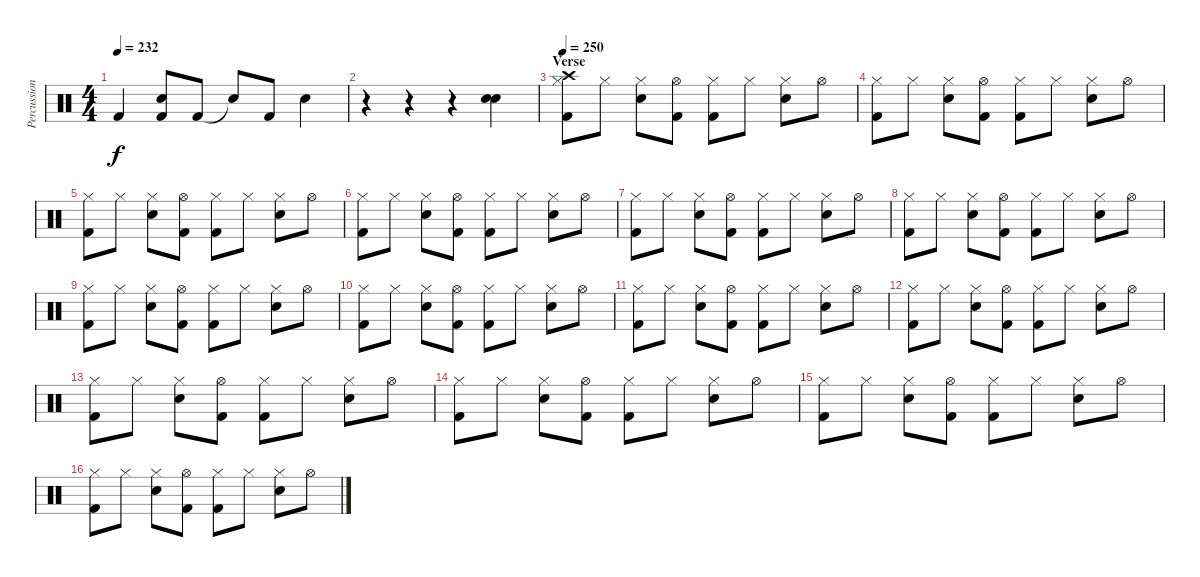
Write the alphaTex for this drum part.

\track ("Percussion" "Percussion") {instrument percussion}
\staff {score}
\articulation defaults
\ts (4 4)
\tempo 232
\clef neutral
\ks c "Kick (hit) 2".4{dy f}
("Electric Snare (hit)" "Kick (hit) 2").8 "Kick (hit) 2".8 "Snare (hit)"{t}.8 "Kick (hit) 2".8 "Electric Snare (hit)".4 |
r.4 r.4 r.4 ("Electric Snare (hit)" "Electric Snare (hit)").4 |
\section ("" "Verse")
\tempo 250
("Crash high (hit)" "Hi-Hat (closed)" "Kick (hit) 2").8 "Hi-Hat (closed)".8 ("Hi-Hat (closed)" "Electric Snare (hit)").8 ("Hi-Hat (open)" "Kick (hit) 2").8 ("Hi-Hat (closed)" "Kick (hit) 2").8 "Hi-Hat (closed)".8 ("Hi-Hat (closed)" "Electric Snare (hit)").8 "Hi-Hat (open)".8 |
("Hi-Hat (closed)" "Kick (hit) 2").8 "Hi-Hat (closed)".8 ("Hi-Hat (closed)" "Electric Snare (hit)").8 ("Hi-Hat (open)" "Kick (hit) 2").8 ("Hi-Hat (closed)" "Kick (hit) 2").8 "Hi-Hat (closed)".8 ("Hi-Hat (closed)" "Electric Snare (hit)").8 "Hi-Hat (open)".8 |
("Hi-Hat (closed)" "Kick (hit) 2").8 "Hi-Hat (closed)".8 ("Hi-Hat (closed)" "Electric Snare (hit)").8 ("Hi-Hat (open)" "Kick (hit) 2").8 ("Hi-Hat (closed)" "Kick (hit) 2").8 "Hi-Hat (closed)".8 ("Hi-Hat (closed)" "Electric Snare (hit)").8 "Hi-Hat (open)".8 |
("Hi-Hat (closed)" "Kick (hit) 2").8 "Hi-Hat (closed)".8 ("Hi-Hat (closed)" "Electric Snare (hit)").8 ("Hi-Hat (open)" "Kick (hit) 2").8 ("Hi-Hat (closed)" "Kick (hit) 2").8 "Hi-Hat (closed)".8 ("Hi-Hat (closed)" "Electric Snare (hit)").8 "Hi-Hat (open)".8 |
("Hi-Hat (closed)" "Kick (hit) 2").8 "Hi-Hat (closed)".8 ("Hi-Hat (closed)" "Electric Snare (hit)").8 ("Hi-Hat (open)" "Kick (hit) 2").8 ("Hi-Hat (closed)" "Kick (hit) 2").8 "Hi-Hat (closed)".8 ("Hi-Hat (closed)" "Electric Snare (hit)").8 "Hi-Hat (open)".8 |
("Hi-Hat (closed)" "Kick (hit) 2").8 "Hi-Hat (closed)".8 ("Hi-Hat (closed)" "Electric Snare (hit)").8 ("Hi-Hat (open)" "Kick (hit) 2").8 ("Hi-Hat (closed)" "Kick (hit) 2").8 "Hi-Hat (closed)".8 ("Hi-Hat (closed)" "Electric Snare (hit)").8 "Hi-Hat (open)".8 |
("Hi-Hat (closed)" "Kick (hit) 2").8 "Hi-Hat (closed)".8 ("Hi-Hat (closed)" "Electric Snare (hit)").8 ("Hi-Hat (open)" "Kick (hit) 2").8 ("Hi-Hat (closed)" "Kick (hit) 2").8 "Hi-Hat (closed)".8 ("Hi-Hat (closed)" "Electric Snare (hit)").8 "Hi-Hat (open)".8 |
("Hi-Hat (closed)" "Kick (hit) 2").8 "Hi-Hat (closed)".8 ("Hi-Hat (closed)" "Electric Snare (hit)").8 ("Hi-Hat (open)" "Kick (hit) 2").8 ("Hi-Hat (closed)" "Kick (hit) 2").8 "Hi-Hat (closed)".8 ("Hi-Hat (closed)" "Electric Snare (hit)").8 "Hi-Hat (open)".8 |
("Hi-Hat (closed)" "Kick (hit) 2").8 "Hi-Hat (closed)".8 ("Hi-Hat (closed)" "Electric Snare (hit)").8 ("Hi-Hat (open)" "Kick (hit) 2").8 ("Hi-Hat (closed)" "Kick (hit) 2").8 "Hi-Hat (closed)".8 ("Hi-Hat (closed)" "Electric Snare (hit)").8 "Hi-Hat (open)".8 |
("Hi-Hat (closed)" "Kick (hit) 2").8 "Hi-Hat (closed)".8 ("Hi-Hat (closed)" "Electric Snare (hit)").8 ("Hi-Hat (open)" "Kick (hit) 2").8 ("Hi-Hat (closed)" "Kick (hit) 2").8 "Hi-Hat (closed)".8 ("Hi-Hat (closed)" "Electric Snare (hit)").8 "Hi-Hat (open)".8 |
("Hi-Hat (closed)" "Kick (hit) 2").8 "Hi-Hat (closed)".8 ("Hi-Hat (closed)" "Electric Snare (hit)").8 ("Hi-Hat (open)" "Kick (hit) 2").8 ("Hi-Hat (closed)" "Kick (hit) 2").8 "Hi-Hat (closed)".8 ("Hi-Hat (closed)" "Electric Snare (hit)").8 "Hi-Hat (open)".8 |
("Hi-Hat (closed)" "Kick (hit) 2").8 "Hi-Hat (closed)".8 ("Hi-Hat (closed)" "Electric Snare (hit)").8 ("Hi-Hat (open)" "Kick (hit) 2").8 ("Hi-Hat (closed)" "Kick (hit) 2").8 "Hi-Hat (closed)".8 ("Hi-Hat (closed)" "Electric Snare (hit)").8 "Hi-Hat (open)".8 |
("Hi-Hat (closed)" "Kick (hit) 2").8 "Hi-Hat (closed)".8 ("Hi-Hat (closed)" "Electric Snare (hit)").8 ("Hi-Hat (open)" "Kick (hit) 2").8 ("Hi-Hat (closed)" "Kick (hit) 2").8 "Hi-Hat (closed)".8 ("Hi-Hat (closed)" "Electric Snare (hit)").8 "Hi-Hat (open)".8 |
("Hi-Hat (closed)" "Kick (hit) 2").8 "Hi-Hat (closed)".8 ("Hi-Hat (closed)" "Electric Snare (hit)").8 ("Hi-Hat (open)" "Kick (hit) 2").8 ("Hi-Hat (closed)" "Kick (hit) 2").8 "Hi-Hat (closed)".8 ("Hi-Hat (closed)" "Electric Snare (hit)").8 "Hi-Hat (open)".8
